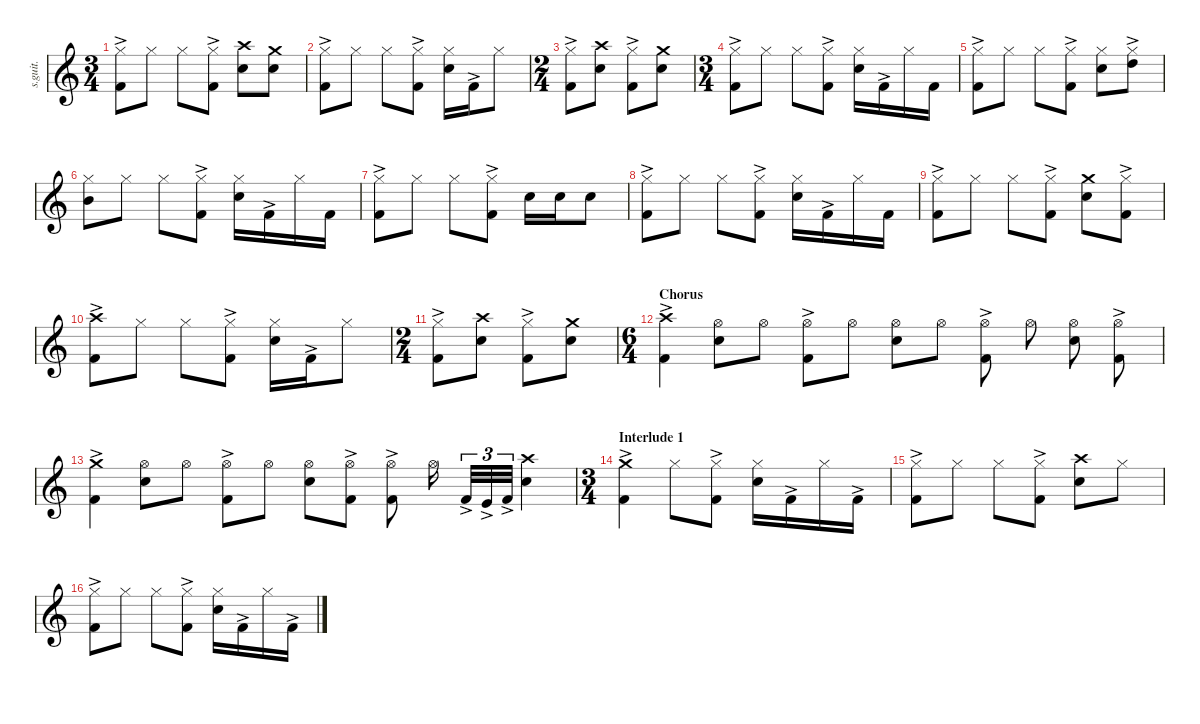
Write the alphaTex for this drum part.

\defaultSystemsLayout 4
\hideDynamics
\bracketExtendMode nobrackets
\track ("Lars Ulrich - Drums" "s.guit.") {instrument percussion}
\staff {score}
\articulation defaults
\ts (3 4)
\tempo (103 hide)
\clef g2
\ks c
("Hi-Hat (closed)" "Kick (hit) 2"{ac}).8{lyrics (0 "") lyrics (1 "") lyrics (2 "") lyrics (3 "") lyrics (4 "") dy f} "Hi-Hat (closed)".8{lyrics (0 "") lyrics (1 "") lyrics (2 "") lyrics (3 "") lyrics (4 "")} "Hi-Hat (closed)".8{lyrics (0 "") lyrics (1 "") lyrics (2 "") lyrics (3 "") lyrics (4 "")} ("Hi-Hat (closed)" "Kick (hit) 2"{ac}).8{lyrics (0 "") lyrics (1 "") lyrics (2 "") lyrics (3 "") lyrics (4 "")} ("Crash high (hit)" "Snare (hit) 2").8{lyrics (0 "") lyrics (1 "") lyrics (2 "") lyrics (3 "") lyrics (4 "")} ("Crash medium (hit)" "Snare (hit) 2").8{lyrics (0 "") lyrics (1 "") lyrics (2 "") lyrics (3 "") lyrics (4 "")} |
("Hi-Hat (closed)" "Kick (hit) 2"{ac}).8{lyrics (0 "") lyrics (1 "") lyrics (2 "") lyrics (3 "") lyrics (4 "")} "Hi-Hat (closed)".8{lyrics (0 "") lyrics (1 "") lyrics (2 "") lyrics (3 "") lyrics (4 "")} "Hi-Hat (closed)".8{lyrics (0 "") lyrics (1 "") lyrics (2 "") lyrics (3 "") lyrics (4 "")} ("Hi-Hat (closed)" "Kick (hit) 2"{ac}).8{lyrics (0 "") lyrics (1 "") lyrics (2 "") lyrics (3 "") lyrics (4 "")} ("Hi-Hat (closed)" "Snare (hit) 2").16{lyrics (0 "") lyrics (1 "") lyrics (2 "") lyrics (3 "") lyrics (4 "")} "Kick (hit) 2"{ac}.16{lyrics (0 "") lyrics (1 "") lyrics (2 "") lyrics (3 "") lyrics (4 "") dy mp} "Hi-Hat (closed)".8{lyrics (0 "") lyrics (1 "") lyrics (2 "") lyrics (3 "") lyrics (4 "") dy f} |
\ts (2 4)
\beaming (8 2 2 2 2)
("Hi-Hat (closed)" "Kick (hit) 2"{ac}).8{lyrics (0 "") lyrics (1 "") lyrics (2 "") lyrics (3 "") lyrics (4 "")} ("Crash high (hit)" "Snare (hit) 2").8{lyrics (0 "") lyrics (1 "") lyrics (2 "") lyrics (3 "") lyrics (4 "")} ("Hi-Hat (closed)" "Kick (hit) 2"{ac}).8{lyrics (0 "") lyrics (1 "") lyrics (2 "") lyrics (3 "") lyrics (4 "")} ("Crash medium (hit)" "Snare (hit) 2").8{lyrics (0 "") lyrics (1 "") lyrics (2 "") lyrics (3 "") lyrics (4 "")} |
\ts (3 4)
\beaming (8 2 2 2 2)
("Hi-Hat (closed)" "Kick (hit) 2"{ac}).8{lyrics (0 "") lyrics (1 "") lyrics (2 "") lyrics (3 "") lyrics (4 "")} "Hi-Hat (closed)".8{lyrics (0 "") lyrics (1 "") lyrics (2 "") lyrics (3 "") lyrics (4 "")} "Hi-Hat (closed)".8{lyrics (0 "") lyrics (1 "") lyrics (2 "") lyrics (3 "") lyrics (4 "")} ("Hi-Hat (closed)" "Kick (hit) 2"{ac}).8{lyrics (0 "") lyrics (1 "") lyrics (2 "") lyrics (3 "") lyrics (4 "")} ("Hi-Hat (closed)" "Snare (hit) 2").16{lyrics (0 "") lyrics (1 "") lyrics (2 "") lyrics (3 "") lyrics (4 "")} "Kick (hit) 2"{ac}.16{lyrics (0 "") lyrics (1 "") lyrics (2 "") lyrics (3 "") lyrics (4 "") dy mp} "Hi-Hat (closed)".16{lyrics (0 "") lyrics (1 "") lyrics (2 "") lyrics (3 "") lyrics (4 "") dy f} "Kick (hit) 2".16{lyrics (0 "") lyrics (1 "") lyrics (2 "") lyrics (3 "") lyrics (4 "")} |
("Hi-Hat (closed)" "Kick (hit) 2"{ac}).8{lyrics (0 "") lyrics (1 "") lyrics (2 "") lyrics (3 "") lyrics (4 "")} "Hi-Hat (closed)".8{lyrics (0 "") lyrics (1 "") lyrics (2 "") lyrics (3 "") lyrics (4 "")} "Hi-Hat (closed)".8{lyrics (0 "") lyrics (1 "") lyrics (2 "") lyrics (3 "") lyrics (4 "")} ("Hi-Hat (closed)" "Kick (hit) 2"{ac}).8{lyrics (0 "") lyrics (1 "") lyrics (2 "") lyrics (3 "") lyrics (4 "")} ("Hi-Hat (closed)" "Snare (hit) 2").8{lyrics (0 "") lyrics (1 "") lyrics (2 "") lyrics (3 "") lyrics (4 "")} ("High Tom (hit)"{ac} "Hi-Hat (closed)").8{lyrics (0 "") lyrics (1 "") lyrics (2 "") lyrics (3 "") lyrics (4 "")} |
("Hi-Hat (closed)" "Mid Tom (hit)").8{lyrics (0 "") lyrics (1 "") lyrics (2 "") lyrics (3 "") lyrics (4 "")} "Hi-Hat (closed)".8{lyrics (0 "") lyrics (1 "") lyrics (2 "") lyrics (3 "") lyrics (4 "")} "Hi-Hat (closed)".8{lyrics (0 "") lyrics (1 "") lyrics (2 "") lyrics (3 "") lyrics (4 "")} ("Hi-Hat (closed)" "Kick (hit) 2"{ac}).8{lyrics (0 "") lyrics (1 "") lyrics (2 "") lyrics (3 "") lyrics (4 "")} ("Hi-Hat (closed)" "Snare (hit) 2").16{lyrics (0 "") lyrics (1 "") lyrics (2 "") lyrics (3 "") lyrics (4 "")} "Kick (hit) 2"{ac}.16{lyrics (0 "") lyrics (1 "") lyrics (2 "") lyrics (3 "") lyrics (4 "") dy mp} "Hi-Hat (closed)".16{lyrics (0 "") lyrics (1 "") lyrics (2 "") lyrics (3 "") lyrics (4 "") dy f} "Kick (hit) 2".16{lyrics (0 "") lyrics (1 "") lyrics (2 "") lyrics (3 "") lyrics (4 "")} |
("Hi-Hat (closed)" "Kick (hit) 2"{ac}).8{lyrics (0 "") lyrics (1 "") lyrics (2 "") lyrics (3 "") lyrics (4 "")} "Hi-Hat (closed)".8{lyrics (0 "") lyrics (1 "") lyrics (2 "") lyrics (3 "") lyrics (4 "")} "Hi-Hat (closed)".8{lyrics (0 "") lyrics (1 "") lyrics (2 "") lyrics (3 "") lyrics (4 "")} ("Hi-Hat (closed)" "Kick (hit) 2"{ac}).8{lyrics (0 "") lyrics (1 "") lyrics (2 "") lyrics (3 "") lyrics (4 "")} "Snare (hit) 2".16{lyrics (0 "") lyrics (1 "") lyrics (2 "") lyrics (3 "") lyrics (4 "")} "Snare (hit) 2".16{lyrics (0 "") lyrics (1 "") lyrics (2 "") lyrics (3 "") lyrics (4 "")} "Snare (hit) 2".8{lyrics (0 "") lyrics (1 "") lyrics (2 "") lyrics (3 "") lyrics (4 "")} |
("Hi-Hat (closed)" "Kick (hit) 2"{ac}).8{lyrics (0 "") lyrics (1 "") lyrics (2 "") lyrics (3 "") lyrics (4 "")} "Hi-Hat (closed)".8{lyrics (0 "") lyrics (1 "") lyrics (2 "") lyrics (3 "") lyrics (4 "")} "Hi-Hat (closed)".8{lyrics (0 "") lyrics (1 "") lyrics (2 "") lyrics (3 "") lyrics (4 "")} ("Hi-Hat (closed)" "Kick (hit) 2"{ac}).8{lyrics (0 "") lyrics (1 "") lyrics (2 "") lyrics (3 "") lyrics (4 "")} ("Hi-Hat (closed)" "Snare (hit) 2").16{lyrics (0 "") lyrics (1 "") lyrics (2 "") lyrics (3 "") lyrics (4 "")} "Kick (hit) 2"{ac}.16{lyrics (0 "") lyrics (1 "") lyrics (2 "") lyrics (3 "") lyrics (4 "") dy mp} "Hi-Hat (closed)".16{lyrics (0 "") lyrics (1 "") lyrics (2 "") lyrics (3 "") lyrics (4 "") dy f} "Kick (hit) 2".16{lyrics (0 "") lyrics (1 "") lyrics (2 "") lyrics (3 "") lyrics (4 "")} |
("Hi-Hat (closed)" "Kick (hit) 2"{ac}).8{lyrics (0 "") lyrics (1 "") lyrics (2 "") lyrics (3 "") lyrics (4 "")} "Hi-Hat (closed)".8{lyrics (0 "") lyrics (1 "") lyrics (2 "") lyrics (3 "") lyrics (4 "")} "Hi-Hat (closed)".8{lyrics (0 "") lyrics (1 "") lyrics (2 "") lyrics (3 "") lyrics (4 "")} ("Hi-Hat (closed)" "Kick (hit) 2"{ac}).8{lyrics (0 "") lyrics (1 "") lyrics (2 "") lyrics (3 "") lyrics (4 "")} ("Crash medium (hit)" "Snare (hit) 2").8{lyrics (0 "") lyrics (1 "") lyrics (2 "") lyrics (3 "") lyrics (4 "")} ("Hi-Hat (closed)" "Kick (hit) 2"{ac}).8{lyrics (0 "") lyrics (1 "") lyrics (2 "") lyrics (3 "") lyrics (4 "")} |
("Crash high (hit)" "Kick (hit) 2"{ac}).8{lyrics (0 "") lyrics (1 "") lyrics (2 "") lyrics (3 "") lyrics (4 "")} "Hi-Hat (closed)".8{lyrics (0 "") lyrics (1 "") lyrics (2 "") lyrics (3 "") lyrics (4 "")} "Hi-Hat (closed)".8{lyrics (0 "") lyrics (1 "") lyrics (2 "") lyrics (3 "") lyrics (4 "")} ("Hi-Hat (closed)" "Kick (hit) 2"{ac}).8{lyrics (0 "") lyrics (1 "") lyrics (2 "") lyrics (3 "") lyrics (4 "")} ("Hi-Hat (closed)" "Snare (hit) 2").16{lyrics (0 "") lyrics (1 "") lyrics (2 "") lyrics (3 "") lyrics (4 "")} "Kick (hit) 2"{ac}.16{lyrics (0 "") lyrics (1 "") lyrics (2 "") lyrics (3 "") lyrics (4 "") dy mp} "Hi-Hat (closed)".8{lyrics (0 "") lyrics (1 "") lyrics (2 "") lyrics (3 "") lyrics (4 "") dy f} |
\ts (2 4)
\beaming (8 2 2 2 2)
("Hi-Hat (closed)" "Kick (hit) 2"{ac}).8{lyrics (0 "") lyrics (1 "") lyrics (2 "") lyrics (3 "") lyrics (4 "")} ("Crash high (hit)" "Snare (hit) 2").8{lyrics (0 "") lyrics (1 "") lyrics (2 "") lyrics (3 "") lyrics (4 "")} ("Hi-Hat (closed)" "Kick (hit) 2"{ac}).8{lyrics (0 "") lyrics (1 "") lyrics (2 "") lyrics (3 "") lyrics (4 "")} ("Crash medium (hit)" "Snare (hit) 2").8{lyrics (0 "") lyrics (1 "") lyrics (2 "") lyrics (3 "") lyrics (4 "")} |
\ts (6 4)
\beaming (8 2 2 2 2)
\section ("" "Chorus")
("Kick (hit) 2"{ac} "Crash high (hit)").4{lyrics (0 "") lyrics (1 "") lyrics (2 "") lyrics (3 "") lyrics (4 "")} ("Hi-Hat (open)" "Snare (hit) 2").8{lyrics (0 "") lyrics (1 "") lyrics (2 "") lyrics (3 "") lyrics (4 "")} "Hi-Hat (open)".8{lyrics (0 "") lyrics (1 "") lyrics (2 "") lyrics (3 "") lyrics (4 "")} ("Hi-Hat (open)" "Kick (hit) 2"{ac}).8{lyrics (0 "") lyrics (1 "") lyrics (2 "") lyrics (3 "") lyrics (4 "")} "Hi-Hat (open)".8{lyrics (0 "") lyrics (1 "") lyrics (2 "") lyrics (3 "") lyrics (4 "")} ("Hi-Hat (open)" "Snare (hit) 2").8{lyrics (0 "") lyrics (1 "") lyrics (2 "") lyrics (3 "") lyrics (4 "")} "Hi-Hat (open)".8{lyrics (0 "") lyrics (1 "") lyrics (2 "") lyrics (3 "") lyrics (4 "")} ("Hi-Hat (open)" "Kick (hit) 2"{ac}).8{lyrics (0 "") lyrics (1 "") lyrics (2 "") lyrics (3 "") lyrics (4 "")} "Hi-Hat (open)".8{lyrics (0 "") lyrics (1 "") lyrics (2 "") lyrics (3 "") lyrics (4 "")} ("Hi-Hat (open)" "Snare (hit) 2").8{lyrics (0 "") lyrics (1 "") lyrics (2 "") lyrics (3 "") lyrics (4 "")} ("Hi-Hat (open)" "Kick (hit) 2"{ac}).8{lyrics (0 "") lyrics (1 "") lyrics (2 "") lyrics (3 "") lyrics (4 "")} |
("Crash medium (hit)" "Kick (hit) 2"{ac}).4{lyrics (0 "") lyrics (1 "") lyrics (2 "") lyrics (3 "") lyrics (4 "")} ("Hi-Hat (open)" "Snare (hit) 2").8{lyrics (0 "") lyrics (1 "") lyrics (2 "") lyrics (3 "") lyrics (4 "")} "Hi-Hat (open)".8{lyrics (0 "") lyrics (1 "") lyrics (2 "") lyrics (3 "") lyrics (4 "")} ("Hi-Hat (open)" "Kick (hit) 2"{ac}).8{lyrics (0 "") lyrics (1 "") lyrics (2 "") lyrics (3 "") lyrics (4 "")} "Hi-Hat (open)".8{lyrics (0 "") lyrics (1 "") lyrics (2 "") lyrics (3 "") lyrics (4 "")} ("Hi-Hat (open)" "Snare (hit) 2").8{lyrics (0 "") lyrics (1 "") lyrics (2 "") lyrics (3 "") lyrics (4 "")} ("Hi-Hat (open)" "Kick (hit) 2"{ac}).8{lyrics (0 "") lyrics (1 "") lyrics (2 "") lyrics (3 "") lyrics (4 "")} ("Hi-Hat (open)" "Kick (hit) 2"{ac}).8{lyrics (0 "") lyrics (1 "") lyrics (2 "") lyrics (3 "") lyrics (4 "")} "Hi-Hat (open)".16{lyrics (0 "") lyrics (1 "") lyrics (2 "") lyrics (3 "") lyrics (4 "")} "Kick (hit) 2"{ac}.32{tu (3 2) lyrics (0 "") lyrics (1 "") lyrics (2 "") lyrics (3 "") lyrics (4 "") dy mp} "Kick (hit)"{ac}.32{tu (3 2) lyrics (0 "") lyrics (1 "") lyrics (2 "") lyrics (3 "") lyrics (4 "") dy mf} "Kick (hit) 2"{ac}.32{tu (3 2) lyrics (0 "") lyrics (1 "") lyrics (2 "") lyrics (3 "") lyrics (4 "") dy mp} ("Snare (hit) 2" "Crash high (hit)").4{lyrics (0 "") lyrics (1 "") lyrics (2 "") lyrics (3 "") lyrics (4 "") dy f} |
\ts (3 4)
\beaming (8 2 2 2 2)
\section ("" "Interlude 1")
("Crash medium (hit)" "Kick (hit) 2"{ac}).4{lyrics (0 "") lyrics (1 "") lyrics (2 "") lyrics (3 "") lyrics (4 "")} "Hi-Hat (closed)".8{lyrics (0 "") lyrics (1 "") lyrics (2 "") lyrics (3 "") lyrics (4 "")} ("Hi-Hat (closed)" "Kick (hit) 2"{ac}).8{lyrics (0 "") lyrics (1 "") lyrics (2 "") lyrics (3 "") lyrics (4 "")} ("Hi-Hat (closed)" "Snare (hit) 2").16{lyrics (0 "") lyrics (1 "") lyrics (2 "") lyrics (3 "") lyrics (4 "")} "Kick (hit) 2"{ac}.16{lyrics (0 "") lyrics (1 "") lyrics (2 "") lyrics (3 "") lyrics (4 "") dy mp} "Hi-Hat (closed)".16{lyrics (0 "") lyrics (1 "") lyrics (2 "") lyrics (3 "") lyrics (4 "") dy f} "Kick (hit) 2"{ac}.16{lyrics (0 "") lyrics (1 "") lyrics (2 "") lyrics (3 "") lyrics (4 "") dy mp} |
("Hi-Hat (closed)" "Kick (hit) 2"{ac}).8{lyrics (0 "") lyrics (1 "") lyrics (2 "") lyrics (3 "") lyrics (4 "") dy f} "Hi-Hat (closed)".8{lyrics (0 "") lyrics (1 "") lyrics (2 "") lyrics (3 "") lyrics (4 "")} "Hi-Hat (closed)".8{lyrics (0 "") lyrics (1 "") lyrics (2 "") lyrics (3 "") lyrics (4 "")} ("Hi-Hat (closed)" "Kick (hit) 2"{ac}).8{lyrics (0 "") lyrics (1 "") lyrics (2 "") lyrics (3 "") lyrics (4 "")} ("Crash high (hit)" "Snare (hit) 2").8{lyrics (0 "") lyrics (1 "") lyrics (2 "") lyrics (3 "") lyrics (4 "")} "Hi-Hat (closed)".8{lyrics (0 "") lyrics (1 "") lyrics (2 "") lyrics (3 "") lyrics (4 "")} |
("Hi-Hat (closed)" "Kick (hit) 2"{ac}).8{lyrics (0 "") lyrics (1 "") lyrics (2 "") lyrics (3 "") lyrics (4 "")} "Hi-Hat (closed)".8{lyrics (0 "") lyrics (1 "") lyrics (2 "") lyrics (3 "") lyrics (4 "")} "Hi-Hat (closed)".8{lyrics (0 "") lyrics (1 "") lyrics (2 "") lyrics (3 "") lyrics (4 "")} ("Hi-Hat (closed)" "Kick (hit) 2"{ac}).8{lyrics (0 "") lyrics (1 "") lyrics (2 "") lyrics (3 "") lyrics (4 "")} ("Hi-Hat (closed)" "Snare (hit) 2").16{lyrics (0 "") lyrics (1 "") lyrics (2 "") lyrics (3 "") lyrics (4 "")} "Kick (hit) 2"{ac}.16{lyrics (0 "") lyrics (1 "") lyrics (2 "") lyrics (3 "") lyrics (4 "") dy mp} "Hi-Hat (closed)".16{lyrics (0 "") lyrics (1 "") lyrics (2 "") lyrics (3 "") lyrics (4 "") dy f} "Kick (hit) 2"{ac}.16{lyrics (0 "") lyrics (1 "") lyrics (2 "") lyrics (3 "") lyrics (4 "") dy mp}
